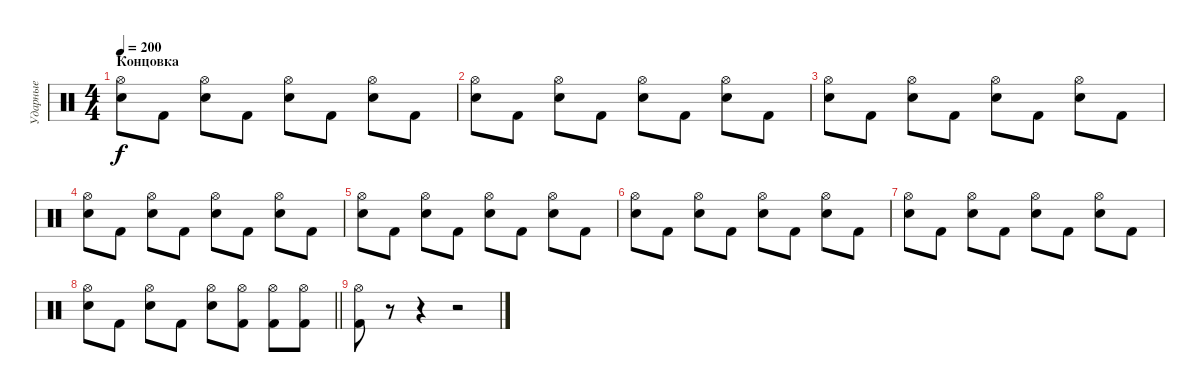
\track ("Ударные" "Ударные") {instrument percussion}
\staff {score}
\articulation defaults
\ts (4 4)
\section ("" "Концовка")
\tempo 200
\clef neutral
\ks c
("Hi-Hat (open)" "Electric Snare (hit)").8{dy f} "Kick (hit) 2".8 ("Hi-Hat (open)" "Electric Snare (hit)").8 "Kick (hit) 2".8 ("Hi-Hat (open)" "Electric Snare (hit)").8 "Kick (hit) 2".8 ("Hi-Hat (open)" "Electric Snare (hit)").8 "Kick (hit) 2".8 |
("Hi-Hat (open)" "Electric Snare (hit)").8 "Kick (hit) 2".8 ("Hi-Hat (open)" "Electric Snare (hit)").8 "Kick (hit) 2".8 ("Hi-Hat (open)" "Electric Snare (hit)").8 "Kick (hit) 2".8 ("Hi-Hat (open)" "Electric Snare (hit)").8 "Kick (hit) 2".8 |
("Hi-Hat (open)" "Electric Snare (hit)").8 "Kick (hit) 2".8 ("Hi-Hat (open)" "Electric Snare (hit)").8 "Kick (hit) 2".8 ("Hi-Hat (open)" "Electric Snare (hit)").8 "Kick (hit) 2".8 ("Hi-Hat (open)" "Electric Snare (hit)").8 "Kick (hit) 2".8 |
("Hi-Hat (open)" "Electric Snare (hit)").8 "Kick (hit) 2".8 ("Hi-Hat (open)" "Electric Snare (hit)").8 "Kick (hit) 2".8 ("Hi-Hat (open)" "Electric Snare (hit)").8 "Kick (hit) 2".8 ("Hi-Hat (open)" "Electric Snare (hit)").8 "Kick (hit) 2".8 |
("Hi-Hat (open)" "Electric Snare (hit)").8 "Kick (hit) 2".8 ("Hi-Hat (open)" "Electric Snare (hit)").8 "Kick (hit) 2".8 ("Hi-Hat (open)" "Electric Snare (hit)").8 "Kick (hit) 2".8 ("Hi-Hat (open)" "Electric Snare (hit)").8 "Kick (hit) 2".8 |
("Hi-Hat (open)" "Electric Snare (hit)").8 "Kick (hit) 2".8 ("Hi-Hat (open)" "Electric Snare (hit)").8 "Kick (hit) 2".8 ("Hi-Hat (open)" "Electric Snare (hit)").8 "Kick (hit) 2".8 ("Hi-Hat (open)" "Electric Snare (hit)").8 "Kick (hit) 2".8 |
("Hi-Hat (open)" "Electric Snare (hit)").8 "Kick (hit) 2".8 ("Hi-Hat (open)" "Electric Snare (hit)").8 "Kick (hit) 2".8 ("Hi-Hat (open)" "Electric Snare (hit)").8 "Kick (hit) 2".8 ("Hi-Hat (open)" "Electric Snare (hit)").8 "Kick (hit) 2".8 |
\barLineRight lightlight
("Hi-Hat (open)" "Electric Snare (hit)").8 "Kick (hit) 2".8 ("Hi-Hat (open)" "Electric Snare (hit)").8 "Kick (hit) 2".8 ("Hi-Hat (open)" "Electric Snare (hit)").8 ("Hi-Hat (open)" "Kick (hit) 2").8 ("Hi-Hat (open)" "Kick (hit) 2").8 ("Hi-Hat (open)" "Kick (hit) 2").8 |
("Hi-Hat (open)" "Kick (hit) 2").8 r.8 r.4 r.2
